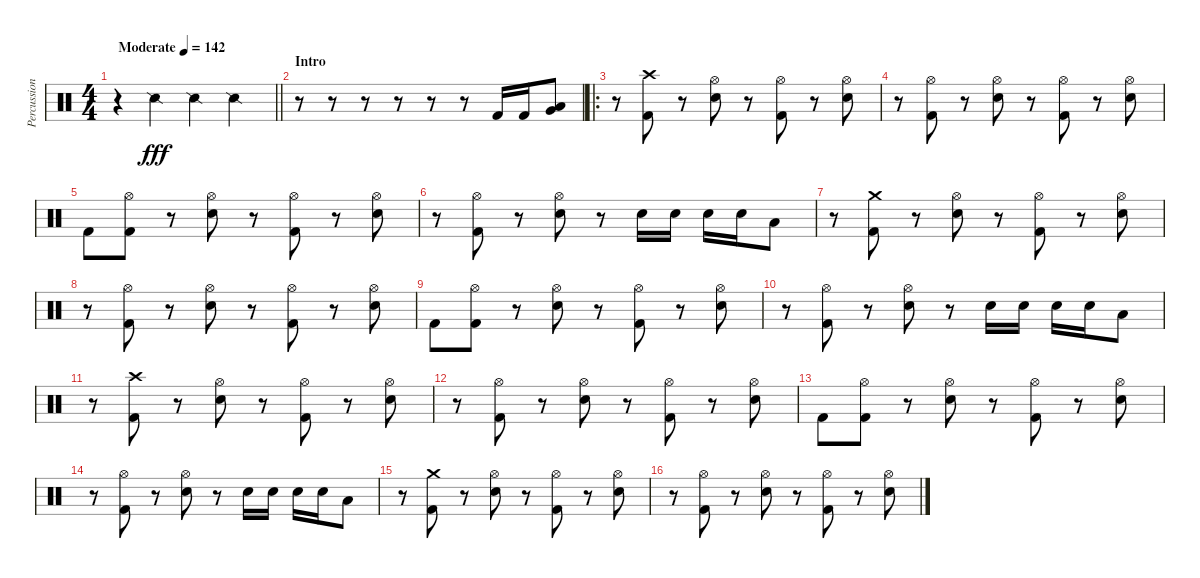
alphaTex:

\track ("Percussion" "Percussion") {instrument percussion}
\staff {score}
\articulation defaults
\ts (4 4)
\tempo (142 "Moderate")
\clef neutral
\barLineRight lightlight
\ks c
r.4{dy fff} "Snare (side stick) 2".4 "Snare (side stick) 2".4 "Snare (side stick) 2".4 |
\section ("" "Intro")
r.8 r.8 r.8 r.8 r.8 r.8 "Kick (hit) 2".16 "Kick (hit) 2".16 ("Very Low Tom (hit)" "Low Tom (hit)").8 |
\ro
r.8 ("Crash high (hit)" "Kick (hit) 2").8 r.8 ("Hi-Hat (open)" "Electric Snare (hit)").8 r.8 ("Hi-Hat (open)" "Kick (hit) 2").8 r.8 ("Hi-Hat (open)" "Electric Snare (hit)").8 |
r.8 ("Hi-Hat (open)" "Kick (hit) 2").8 r.8 ("Hi-Hat (open)" "Electric Snare (hit)").8 r.8 ("Hi-Hat (open)" "Kick (hit) 2").8 r.8 ("Hi-Hat (open)" "Electric Snare (hit)").8 |
"Kick (hit) 2".8 ("Hi-Hat (open)" "Kick (hit) 2").8 r.8 ("Hi-Hat (open)" "Electric Snare (hit)").8 r.8 ("Hi-Hat (open)" "Kick (hit) 2").8 r.8 ("Hi-Hat (open)" "Electric Snare (hit)").8 |
r.8 ("Hi-Hat (open)" "Kick (hit) 2").8 r.8 ("Hi-Hat (open)" "Electric Snare (hit)").8 r.8 "Electric Snare (hit)".16 "Electric Snare (hit)".16 "Electric Snare (hit)".16 "Electric Snare (hit)".16 "Low Tom (hit)".8 |
r.8 ("Crash medium (hit)" "Kick (hit) 2").8 r.8 ("Hi-Hat (open)" "Electric Snare (hit)").8 r.8 ("Hi-Hat (open)" "Kick (hit) 2").8 r.8 ("Hi-Hat (open)" "Electric Snare (hit)").8 |
r.8 ("Hi-Hat (open)" "Kick (hit) 2").8 r.8 ("Hi-Hat (open)" "Electric Snare (hit)").8 r.8 ("Hi-Hat (open)" "Kick (hit) 2").8 r.8 ("Hi-Hat (open)" "Electric Snare (hit)").8 |
"Kick (hit) 2".8 ("Hi-Hat (open)" "Kick (hit) 2").8 r.8 ("Hi-Hat (open)" "Electric Snare (hit)").8 r.8 ("Hi-Hat (open)" "Kick (hit) 2").8 r.8 ("Hi-Hat (open)" "Electric Snare (hit)").8 |
r.8 ("Hi-Hat (open)" "Kick (hit) 2").8 r.8 ("Hi-Hat (open)" "Electric Snare (hit)").8 r.8 "Electric Snare (hit)".16 "Electric Snare (hit)".16 "Electric Snare (hit)".16 "Electric Snare (hit)".16 "Low Tom (hit)".8 |
r.8 ("Crash high (hit)" "Kick (hit) 2").8 r.8 ("Hi-Hat (open)" "Electric Snare (hit)").8 r.8 ("Hi-Hat (open)" "Kick (hit) 2").8 r.8 ("Hi-Hat (open)" "Electric Snare (hit)").8 |
r.8 ("Hi-Hat (open)" "Kick (hit) 2").8 r.8 ("Hi-Hat (open)" "Electric Snare (hit)").8 r.8 ("Hi-Hat (open)" "Kick (hit) 2").8 r.8 ("Hi-Hat (open)" "Electric Snare (hit)").8 |
"Kick (hit) 2".8 ("Hi-Hat (open)" "Kick (hit) 2").8 r.8 ("Hi-Hat (open)" "Electric Snare (hit)").8 r.8 ("Hi-Hat (open)" "Kick (hit) 2").8 r.8 ("Hi-Hat (open)" "Electric Snare (hit)").8 |
r.8 ("Hi-Hat (open)" "Kick (hit) 2").8 r.8 ("Hi-Hat (open)" "Electric Snare (hit)").8 r.8 "Electric Snare (hit)".16 "Electric Snare (hit)".16 "Electric Snare (hit)".16 "Electric Snare (hit)".16 "Low Tom (hit)".8 |
r.8 ("Crash medium (hit)" "Kick (hit) 2").8 r.8 ("Hi-Hat (open)" "Electric Snare (hit)").8 r.8 ("Hi-Hat (open)" "Kick (hit) 2").8 r.8 ("Hi-Hat (open)" "Electric Snare (hit)").8 |
r.8 ("Hi-Hat (open)" "Kick (hit) 2").8 r.8 ("Hi-Hat (open)" "Electric Snare (hit)").8 r.8 ("Hi-Hat (open)" "Kick (hit) 2").8 r.8 ("Hi-Hat (open)" "Electric Snare (hit)").8
